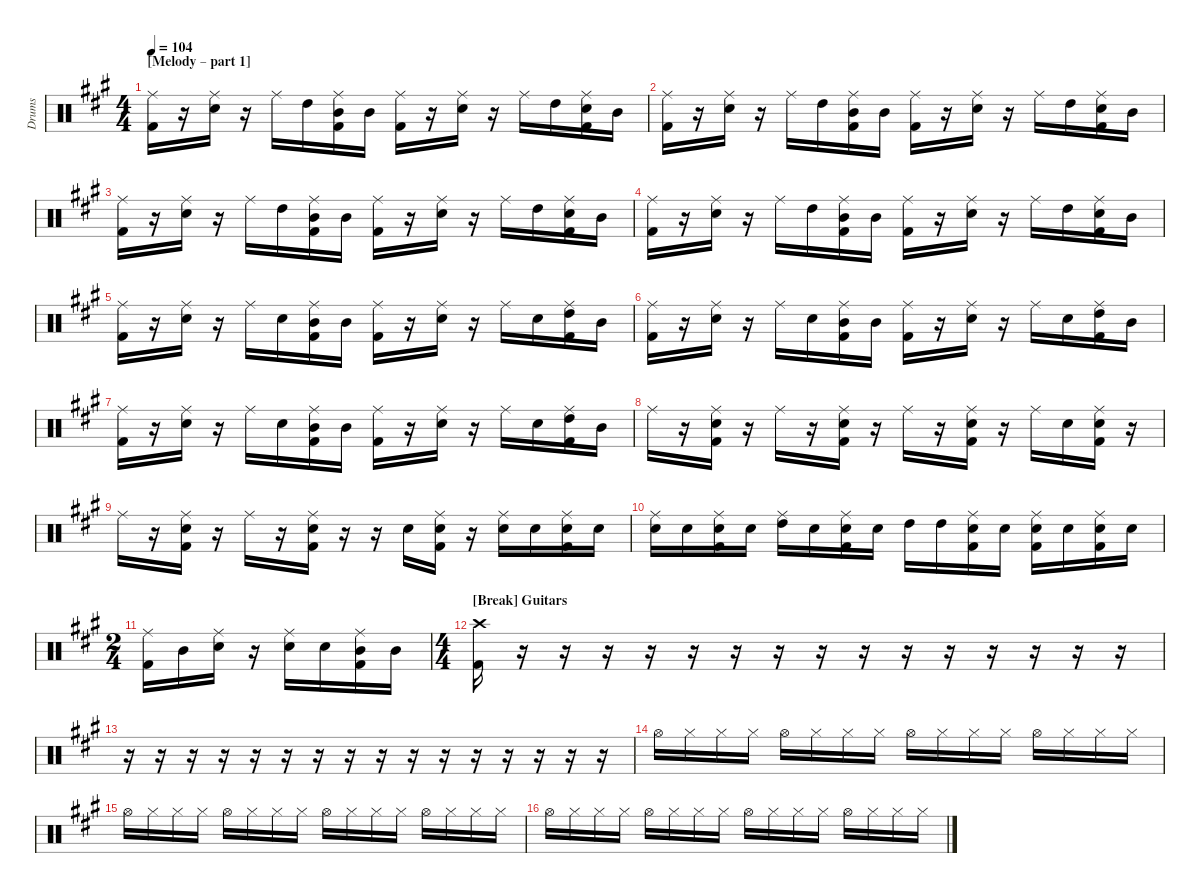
\hideDynamics
\bracketExtendMode nobrackets
\otherSystemsTrackNameOrientation horizontal
\track ("Drumkit" "Drums") {instrument percussion}
\staff {score}
\articulation defaults
\ts (4 4)
\section ("" "[Melody – part 1] ")
\tempo 104
\clef neutral
\ks a
("Ride (middle)"{acc forcenatural} "Kick (hit) 2"{acc forcenatural}).16{dy f beam Down} r.16{beam Down} ("Ride (middle)"{acc forcenatural} "Snare (hit) 2"{acc forcenatural}).16{beam Down} r.16{beam Down} "Ride (middle)"{acc forcenatural}.16{beam Down} "High Tom (hit)"{acc forcenatural}.16{beam Down} ("Ride (middle)"{acc forcenatural} "Mid Tom (hit)"{acc forcenatural} "Kick (hit) 2"{acc forcenatural}).16{beam Down} "Mid Tom (hit)"{acc forcenatural}.16{beam Down} ("Ride (middle)"{acc forcenatural} "Kick (hit) 2"{acc forcenatural}).16{beam Down} r.16{beam Down} ("Ride (middle)"{acc forcenatural} "Snare (hit) 2"{acc forcenatural}).16{beam Down} r.16{beam Down} "Ride (middle)"{acc forcenatural}.16{beam Down} "High Tom (hit)"{acc forcenatural}.16{beam Down} ("Ride (middle)"{acc forcenatural} "Snare (hit) 2"{acc forcenatural} "Kick (hit) 2"{acc forcenatural}).16{beam Down} "Mid Tom (hit)"{acc forcenatural}.16{beam Down} |
("Ride (middle)"{acc forcenatural} "Kick (hit) 2"{acc forcenatural}).16{beam Down} r.16{beam Down} ("Ride (middle)"{acc forcenatural} "Snare (hit) 2"{acc forcenatural}).16{beam Down} r.16{beam Down} "Ride (middle)"{acc forcenatural}.16{beam Down} "High Tom (hit)"{acc forcenatural}.16{beam Down} ("Ride (middle)"{acc forcenatural} "Mid Tom (hit)"{acc forcenatural} "Kick (hit) 2"{acc forcenatural}).16{beam Down} "Mid Tom (hit)"{acc forcenatural}.16{beam Down} ("Ride (middle)"{acc forcenatural} "Kick (hit) 2"{acc forcenatural}).16{beam Down} r.16{beam Down} ("Ride (middle)"{acc forcenatural} "Snare (hit) 2"{acc forcenatural}).16{beam Down} r.16{beam Down} "Ride (middle)"{acc forcenatural}.16{beam Down} "High Tom (hit)"{acc forcenatural}.16{beam Down} ("Ride (middle)"{acc forcenatural} "Snare (hit) 2"{acc forcenatural} "Kick (hit) 2"{acc forcenatural}).16{beam Down} "Mid Tom (hit)"{acc forcenatural}.16{beam Down} |
("Ride (middle)"{acc forcenatural} "Kick (hit) 2"{acc forcenatural}).16{beam Down} r.16{beam Down} ("Ride (middle)"{acc forcenatural} "Snare (hit) 2"{acc forcenatural}).16{beam Down} r.16{beam Down} "Ride (middle)"{acc forcenatural}.16{beam Down} "High Tom (hit)"{acc forcenatural}.16{beam Down} ("Ride (middle)"{acc forcenatural} "Mid Tom (hit)"{acc forcenatural} "Kick (hit) 2"{acc forcenatural}).16{beam Down} "Mid Tom (hit)"{acc forcenatural}.16{beam Down} ("Ride (middle)"{acc forcenatural} "Kick (hit) 2"{acc forcenatural}).16{beam Down} r.16{beam Down} ("Ride (middle)"{acc forcenatural} "Snare (hit) 2"{acc forcenatural}).16{beam Down} r.16{beam Down} "Ride (middle)"{acc forcenatural}.16{beam Down} "High Tom (hit)"{acc forcenatural}.16{beam Down} ("Ride (middle)"{acc forcenatural} "Snare (hit) 2"{acc forcenatural} "Kick (hit) 2"{acc forcenatural}).16{beam Down} "Mid Tom (hit)"{acc forcenatural}.16{beam Down} |
("Ride (middle)"{acc forcenatural} "Kick (hit) 2"{acc forcenatural}).16{beam Down} r.16{beam Down} ("Ride (middle)"{acc forcenatural} "Snare (hit) 2"{acc forcenatural}).16{beam Down} r.16{beam Down} "Ride (middle)"{acc forcenatural}.16{beam Down} "High Tom (hit)"{acc forcenatural}.16{beam Down} ("Ride (middle)"{acc forcenatural} "Mid Tom (hit)"{acc forcenatural} "Kick (hit) 2"{acc forcenatural}).16{beam Down} "Mid Tom (hit)"{acc forcenatural}.16{beam Down} ("Ride (middle)"{acc forcenatural} "Kick (hit) 2"{acc forcenatural}).16{beam Down} r.16{beam Down} ("Ride (middle)"{acc forcenatural} "Snare (hit) 2"{acc forcenatural}).16{beam Down} r.16{beam Down} "Ride (middle)"{acc forcenatural}.16{beam Down} "High Tom (hit)"{acc forcenatural}.16{beam Down} ("Ride (middle)"{acc forcenatural} "Snare (hit) 2"{acc forcenatural} "Kick (hit) 2"{acc forcenatural}).16{beam Down} "Mid Tom (hit)"{acc forcenatural}.16{beam Down} |
("Ride (middle)"{acc forcenatural} "Kick (hit) 2"{acc forcenatural}).16{beam Down} r.16{beam Down} ("Ride (middle)"{acc forcenatural} "Snare (hit) 2"{acc forcenatural}).16{beam Down} r.16{beam Down} "Ride (middle)"{acc forcenatural}.16{beam Down} "Snare (hit) 2"{acc forcenatural}.16{beam Down} ("Ride (middle)"{acc forcenatural} "Mid Tom (hit)"{acc forcenatural} "Kick (hit) 2"{acc forcenatural}).16{beam Down} "Mid Tom (hit)"{acc forcenatural}.16{beam Down} ("Ride (middle)"{acc forcenatural} "Kick (hit) 2"{acc forcenatural}).16{beam Down} r.16{beam Down} ("Ride (middle)"{acc forcenatural} "Snare (hit) 2"{acc forcenatural}).16{beam Down} r.16{beam Down} "Ride (middle)"{acc forcenatural}.16{beam Down} "Snare (hit) 2"{acc forcenatural}.16{beam Down} ("Ride (middle)"{acc forcenatural} "High Tom (hit)"{acc forcenatural} "Kick (hit) 2"{acc forcenatural}).16{beam Down} "Mid Tom (hit)"{acc forcenatural}.16{beam Down} |
("Ride (middle)"{acc forcenatural} "Kick (hit) 2"{acc forcenatural}).16{beam Down} r.16{beam Down} ("Ride (middle)"{acc forcenatural} "Snare (hit) 2"{acc forcenatural}).16{beam Down} r.16{beam Down} "Ride (middle)"{acc forcenatural}.16{beam Down} "Snare (hit) 2"{acc forcenatural}.16{beam Down} ("Ride (middle)"{acc forcenatural} "Mid Tom (hit)"{acc forcenatural} "Kick (hit) 2"{acc forcenatural}).16{beam Down} "Mid Tom (hit)"{acc forcenatural}.16{beam Down} ("Ride (middle)"{acc forcenatural} "Kick (hit) 2"{acc forcenatural}).16{beam Down} r.16{beam Down} ("Ride (middle)"{acc forcenatural} "Snare (hit) 2"{acc forcenatural}).16{beam Down} r.16{beam Down} "Ride (middle)"{acc forcenatural}.16{beam Down} "Snare (hit) 2"{acc forcenatural}.16{beam Down} ("Ride (middle)"{acc forcenatural} "High Tom (hit)"{acc forcenatural} "Kick (hit) 2"{acc forcenatural}).16{beam Down} "Mid Tom (hit)"{acc forcenatural}.16{beam Down} |
("Ride (middle)"{acc forcenatural} "Kick (hit) 2"{acc forcenatural}).16{beam Down} r.16{beam Down} ("Ride (middle)"{acc forcenatural} "Snare (hit) 2"{acc forcenatural}).16{beam Down} r.16{beam Down} "Ride (middle)"{acc forcenatural}.16{beam Down} "Snare (hit) 2"{acc forcenatural}.16{beam Down} ("Ride (middle)"{acc forcenatural} "Mid Tom (hit)"{acc forcenatural} "Kick (hit) 2"{acc forcenatural}).16{beam Down} "Mid Tom (hit)"{acc forcenatural}.16{beam Down} ("Ride (middle)"{acc forcenatural} "Kick (hit) 2"{acc forcenatural}).16{beam Down} r.16{beam Down} ("Ride (middle)"{acc forcenatural} "Snare (hit) 2"{acc forcenatural}).16{beam Down} r.16{beam Down} "Ride (middle)"{acc forcenatural}.16{beam Down} "Snare (hit) 2"{acc forcenatural}.16{beam Down} ("Ride (middle)"{acc forcenatural} "High Tom (hit)"{acc forcenatural} "Kick (hit) 2"{acc forcenatural}).16{beam Down} "Mid Tom (hit)"{acc forcenatural}.16{beam Down} |
"Ride (middle)"{acc forcenatural}.16{beam Down} r.16{beam Down} ("Ride (middle)"{acc forcenatural} "Snare (hit) 2"{acc forcenatural} "Kick (hit) 2"{acc forcenatural}).16{beam Down} r.16{beam Down} "Ride (middle)"{acc forcenatural}.16{beam Down} r.16{beam Down} ("Ride (middle)"{acc forcenatural} "Snare (hit) 2"{acc forcenatural} "Kick (hit) 2"{acc forcenatural}).16{beam Down} r.16{beam Down} "Ride (middle)"{acc forcenatural}.16{beam Down} r.16{beam Down} ("Ride (middle)"{acc forcenatural} "Snare (hit) 2"{acc forcenatural} "Kick (hit) 2"{acc forcenatural}).16{beam Down} r.16{beam Down} "Ride (middle)"{acc forcenatural}.16{beam Down} "Snare (hit) 2"{acc forcenatural}.16{beam Down} ("Ride (middle)"{acc forcenatural} "Snare (hit) 2"{acc forcenatural} "Kick (hit) 2"{acc forcenatural}).16{beam Down} r.16{beam Down} |
"Ride (middle)"{acc forcenatural}.16{beam Down} r.16{beam Down} ("Ride (middle)"{acc forcenatural} "Snare (hit) 2"{acc forcenatural} "Kick (hit) 2"{acc forcenatural}).16{beam Down} r.16{beam Down} "Ride (middle)"{acc forcenatural}.16{beam Down} r.16{beam Down} ("Ride (middle)"{acc forcenatural} "Snare (hit) 2"{acc forcenatural} "Kick (hit) 2"{acc forcenatural}).16{beam Down} r.16{beam Down} r.16{beam Down} "Snare (hit) 2"{acc forcenatural}.16{beam Down} ("Ride (middle)"{acc forcenatural} "Snare (hit) 2"{acc forcenatural} "Kick (hit) 2"{acc forcenatural}).16{beam Down} r.16{beam Down} ("Ride (middle)"{acc forcenatural} "Snare (hit) 2"{acc forcenatural}).16{beam Down} "Snare (hit) 2"{acc forcenatural}.16{beam Down} ("Ride (middle)"{acc forcenatural} "Snare (hit) 2"{acc forcenatural} "Kick (hit) 2"{acc forcenatural}).16{beam Down} "Snare (hit) 2"{acc forcenatural}.16{beam Down} |
("Ride (middle)"{acc forcenatural} "Snare (hit) 2"{acc forcenatural}).16{beam Down} "Snare (hit) 2"{acc forcenatural}.16{beam Down} ("Ride (middle)"{acc forcenatural} "Snare (hit) 2"{acc forcenatural} "Kick (hit) 2"{acc forcenatural}).16{beam Down} "Snare (hit) 2"{acc forcenatural}.16{beam Down} ("Ride (middle)"{acc forcenatural} "High Tom (hit)"{acc forcenatural}).16{beam Down} "Snare (hit) 2"{acc forcenatural}.16{beam Down} ("Ride (middle)"{acc forcenatural} "Snare (hit) 2"{acc forcenatural} "Kick (hit) 2"{acc forcenatural}).16{beam Down} "Snare (hit) 2"{acc forcenatural}.16{beam Down} "High Tom (hit)"{acc forcenatural}.16{beam Down} "High Tom (hit)"{acc forcenatural}.16{beam Down} ("Ride (middle)"{acc forcenatural} "Snare (hit) 2"{acc forcenatural} "Kick (hit) 2"{acc forcenatural}).16{beam Down} "Snare (hit) 2"{acc forcenatural}.16{beam Down} ("Ride (middle)"{acc forcenatural} "Snare (hit) 2"{acc forcenatural} "Kick (hit) 2"{acc forcenatural}).16{beam Down} "Snare (hit) 2"{acc forcenatural}.16{beam Down} ("Ride (middle)"{acc forcenatural} "Snare (hit) 2"{acc forcenatural} "Kick (hit) 2"{acc forcenatural}).16{beam Down} "Snare (hit) 2"{acc forcenatural}.16{beam Down} |
\ts (2 4)
("Ride (middle)"{acc forcenatural} "Kick (hit) 2"{acc forcenatural}).16{beam Down} "Mid Tom (hit)"{acc forcenatural}.16{beam Down} ("Ride (middle)"{acc forcenatural} "Snare (hit) 2"{acc forcenatural}).16{beam Down} r.16{beam Down} ("Ride (middle)"{acc forcenatural} "Snare (hit) 2"{acc forcenatural}).16{beam Down} "Snare (hit) 2"{acc forcenatural}.16{beam Down} ("Ride (middle)"{acc forcenatural} "Mid Tom (hit)"{acc forcenatural} "Kick (hit) 2"{acc forcenatural}).16{beam Down} "Mid Tom (hit)"{acc forcenatural}.16{beam Down} |
\ts (4 4)
\section ("" "[Break] Guitars")
("Crash high (hit)"{acc forcenatural} "Kick (hit) 2"{acc forcenatural}).16{beam Down} r.16{beam Down} r.16{beam Down} r.16{beam Down} r.16{beam Down} r.16{beam Down} r.16{beam Down} r.16{beam Down} r.16{beam Down} r.16{beam Down} r.16{beam Down} r.16{beam Down} r.16{beam Down} r.16{beam Down} r.16{beam Down} r.16{beam Down} |
r.16{beam Down} r.16{beam Down} r.16{beam Down} r.16{beam Down} r.16{beam Down} r.16{beam Down} r.16{beam Down} r.16{beam Down} r.16{beam Down} r.16{beam Down} r.16{beam Down} r.16{beam Down} r.16{beam Down} r.16{beam Down} r.16{beam Down} r.16{beam Down} |
"Hi-Hat (open)"{acc forcenatural}.16{beam Down} "Hi-Hat (closed)"{acc forcenatural}.16{beam Down} "Hi-Hat (closed)"{acc forcenatural}.16{beam Down} "Hi-Hat (closed)"{acc forcenatural}.16{beam Down} "Hi-Hat (open)"{acc forcenatural}.16{beam Down} "Hi-Hat (closed)"{acc forcenatural}.16{beam Down} "Hi-Hat (closed)"{acc forcenatural}.16{beam Down} "Hi-Hat (closed)"{acc forcenatural}.16{beam Down} "Hi-Hat (open)"{acc forcenatural}.16{beam Down} "Hi-Hat (closed)"{acc forcenatural}.16{beam Down} "Hi-Hat (closed)"{acc forcenatural}.16{beam Down} "Hi-Hat (closed)"{acc forcenatural}.16{beam Down} "Hi-Hat (open)"{acc forcenatural}.16{beam Down} "Hi-Hat (closed)"{acc forcenatural}.16{beam Down} "Hi-Hat (closed)"{acc forcenatural}.16{beam Down} "Hi-Hat (closed)"{acc forcenatural}.16{beam Down} |
"Hi-Hat (open)"{acc forcenatural}.16{beam Down} "Hi-Hat (closed)"{acc forcenatural}.16{beam Down} "Hi-Hat (closed)"{acc forcenatural}.16{beam Down} "Hi-Hat (closed)"{acc forcenatural}.16{beam Down} "Hi-Hat (open)"{acc forcenatural}.16{beam Down} "Hi-Hat (closed)"{acc forcenatural}.16{beam Down} "Hi-Hat (closed)"{acc forcenatural}.16{beam Down} "Hi-Hat (closed)"{acc forcenatural}.16{beam Down} "Hi-Hat (open)"{acc forcenatural}.16{beam Down} "Hi-Hat (closed)"{acc forcenatural}.16{beam Down} "Hi-Hat (closed)"{acc forcenatural}.16{beam Down} "Hi-Hat (closed)"{acc forcenatural}.16{beam Down} "Hi-Hat (open)"{acc forcenatural}.16{beam Down} "Hi-Hat (closed)"{acc forcenatural}.16{beam Down} "Hi-Hat (closed)"{acc forcenatural}.16{beam Down} "Hi-Hat (closed)"{acc forcenatural}.16{beam Down} |
"Hi-Hat (open)"{acc forcenatural}.16{beam Down} "Hi-Hat (closed)"{acc forcenatural}.16{beam Down} "Hi-Hat (closed)"{acc forcenatural}.16{beam Down} "Hi-Hat (closed)"{acc forcenatural}.16{beam Down} "Hi-Hat (open)"{acc forcenatural}.16{beam Down} "Hi-Hat (closed)"{acc forcenatural}.16{beam Down} "Hi-Hat (closed)"{acc forcenatural}.16{beam Down} "Hi-Hat (closed)"{acc forcenatural}.16{beam Down} "Hi-Hat (open)"{acc forcenatural}.16{beam Down} "Hi-Hat (closed)"{acc forcenatural}.16{beam Down} "Hi-Hat (closed)"{acc forcenatural}.16{beam Down} "Hi-Hat (closed)"{acc forcenatural}.16{beam Down} "Hi-Hat (open)"{acc forcenatural}.16{beam Down} "Hi-Hat (closed)"{acc forcenatural}.16{beam Down} "Hi-Hat (closed)"{acc forcenatural}.16{beam Down} "Hi-Hat (closed)"{acc forcenatural}.16{beam Down}
